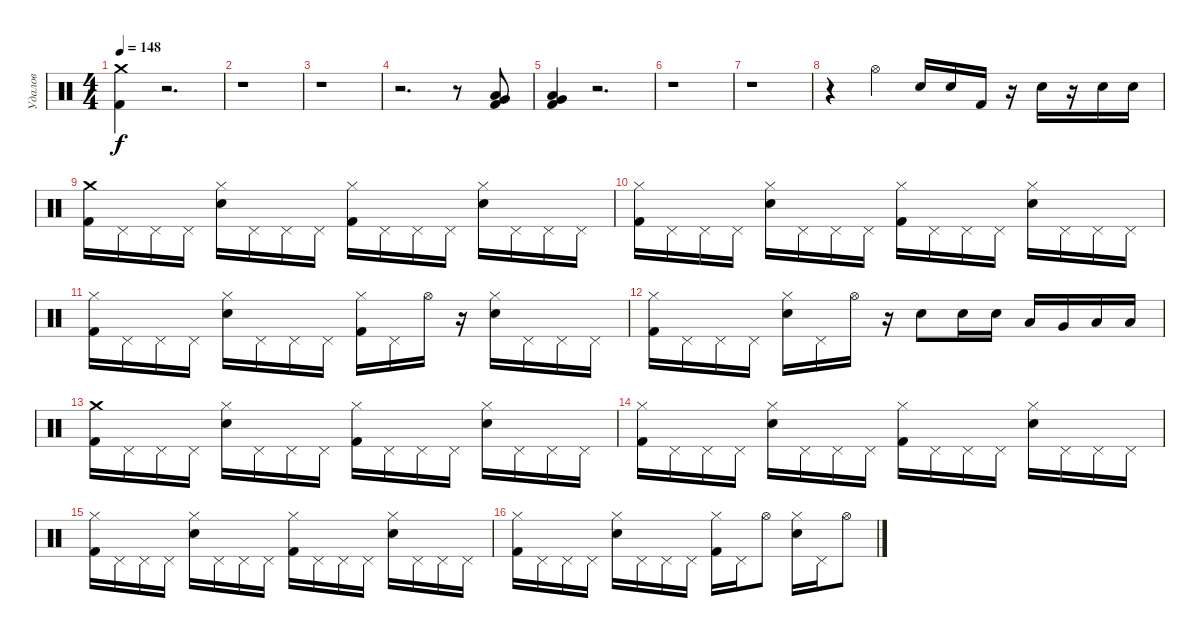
\track ("Удалов" "Удалов") {instrument percussion}
\staff {score}
\articulation defaults
\ts (4 4)
\tempo 148
\clef neutral
\ks c
("Crash medium (hit)" "Kick (hit) 2").4{dy f} r.2{d} |
r.1 |
r.1 |
r.2{d} r.8 ("Low Tom (hit)" "Very Low Tom (hit)" "Kick (hit) 2").8 |
("Kick (hit) 2" "Low Tom (hit)" "Very Low Tom (hit)").4 r.2{d} |
r.1 |
r.1 |
r.4 "Hi-Hat (open)".4 "Snare (hit) 2".16 "Snare (hit) 2".16 "Kick (hit) 2".16 r.16 "Snare (hit) 2".16 r.16 "Snare (hit) 2".16 "Snare (hit) 2".16 |
("Kick (hit) 2" "Crash medium (hit)").16 "Pedal Hi-Hat (hit)".16 "Pedal Hi-Hat (hit)".16 "Pedal Hi-Hat (hit)".16 ("Snare (hit) 2" "Hi-Hat (closed)").16 "Pedal Hi-Hat (hit)".16 "Pedal Hi-Hat (hit)".16 "Pedal Hi-Hat (hit)".16 ("Kick (hit) 2" "Hi-Hat (closed)").16 "Pedal Hi-Hat (hit)".16 "Pedal Hi-Hat (hit)".16 "Pedal Hi-Hat (hit)".16 ("Snare (hit) 2" "Hi-Hat (closed)").16 "Pedal Hi-Hat (hit)".16 "Pedal Hi-Hat (hit)".16 "Pedal Hi-Hat (hit)".16 |
("Kick (hit) 2" "Hi-Hat (closed)").16 "Pedal Hi-Hat (hit)".16 "Pedal Hi-Hat (hit)".16 "Pedal Hi-Hat (hit)".16 ("Snare (hit) 2" "Hi-Hat (closed)").16 "Pedal Hi-Hat (hit)".16 "Pedal Hi-Hat (hit)".16 "Pedal Hi-Hat (hit)".16 ("Kick (hit) 2" "Hi-Hat (closed)").16 "Pedal Hi-Hat (hit)".16 "Pedal Hi-Hat (hit)".16 "Pedal Hi-Hat (hit)".16 ("Snare (hit) 2" "Hi-Hat (closed)").16 "Pedal Hi-Hat (hit)".16 "Pedal Hi-Hat (hit)".16 "Pedal Hi-Hat (hit)".16 |
("Kick (hit) 2" "Hi-Hat (closed)").16 "Pedal Hi-Hat (hit)".16 "Pedal Hi-Hat (hit)".16 "Pedal Hi-Hat (hit)".16 ("Snare (hit) 2" "Hi-Hat (closed)").16 "Pedal Hi-Hat (hit)".16 "Pedal Hi-Hat (hit)".16 "Pedal Hi-Hat (hit)".16 ("Kick (hit) 2" "Hi-Hat (closed)").16 "Pedal Hi-Hat (hit)".16 "Hi-Hat (open)".16 r.16 ("Snare (hit) 2" "Hi-Hat (closed)").16 "Pedal Hi-Hat (hit)".16 "Pedal Hi-Hat (hit)".16 "Pedal Hi-Hat (hit)".16 |
("Kick (hit) 2" "Hi-Hat (closed)").16 "Pedal Hi-Hat (hit)".16 "Pedal Hi-Hat (hit)".16 "Pedal Hi-Hat (hit)".16 ("Snare (hit) 2" "Hi-Hat (closed)").16 "Pedal Hi-Hat (hit)".16 "Hi-Hat (open)".16 r.16 "Snare (hit) 2".8 "Snare (hit) 2".16 "Snare (hit) 2".16 "Low Tom (hit)".16 "Very Low Tom (hit)".16 "Low Floor Tom (hit)".16 "Low Floor Tom (hit)".16 |
("Kick (hit) 2" "Crash medium (hit)").16 "Pedal Hi-Hat (hit)".16 "Pedal Hi-Hat (hit)".16 "Pedal Hi-Hat (hit)".16 ("Snare (hit) 2" "Hi-Hat (closed)").16 "Pedal Hi-Hat (hit)".16 "Pedal Hi-Hat (hit)".16 "Pedal Hi-Hat (hit)".16 ("Kick (hit) 2" "Hi-Hat (closed)").16 "Pedal Hi-Hat (hit)".16 "Pedal Hi-Hat (hit)".16 "Pedal Hi-Hat (hit)".16 ("Snare (hit) 2" "Hi-Hat (closed)").16 "Pedal Hi-Hat (hit)".16 "Pedal Hi-Hat (hit)".16 "Pedal Hi-Hat (hit)".16 |
("Kick (hit) 2" "Hi-Hat (closed)").16 "Pedal Hi-Hat (hit)".16 "Pedal Hi-Hat (hit)".16 "Pedal Hi-Hat (hit)".16 ("Snare (hit) 2" "Hi-Hat (closed)").16 "Pedal Hi-Hat (hit)".16 "Pedal Hi-Hat (hit)".16 "Pedal Hi-Hat (hit)".16 ("Kick (hit) 2" "Hi-Hat (closed)").16 "Pedal Hi-Hat (hit)".16 "Pedal Hi-Hat (hit)".16 "Pedal Hi-Hat (hit)".16 ("Snare (hit) 2" "Hi-Hat (closed)").16 "Pedal Hi-Hat (hit)".16 "Pedal Hi-Hat (hit)".16 "Pedal Hi-Hat (hit)".16 |
("Kick (hit) 2" "Hi-Hat (closed)").16 "Pedal Hi-Hat (hit)".16 "Pedal Hi-Hat (hit)".16 "Pedal Hi-Hat (hit)".16 ("Snare (hit) 2" "Hi-Hat (closed)").16 "Pedal Hi-Hat (hit)".16 "Pedal Hi-Hat (hit)".16 "Pedal Hi-Hat (hit)".16 ("Kick (hit) 2" "Hi-Hat (closed)").16 "Pedal Hi-Hat (hit)".16 "Pedal Hi-Hat (hit)".16 "Pedal Hi-Hat (hit)".16 ("Snare (hit) 2" "Hi-Hat (closed)").16 "Pedal Hi-Hat (hit)".16 "Pedal Hi-Hat (hit)".16 "Pedal Hi-Hat (hit)".16 |
("Kick (hit) 2" "Hi-Hat (closed)").16 "Pedal Hi-Hat (hit)".16 "Pedal Hi-Hat (hit)".16 "Pedal Hi-Hat (hit)".16 ("Snare (hit) 2" "Hi-Hat (closed)").16 "Pedal Hi-Hat (hit)".16 "Pedal Hi-Hat (hit)".16 "Pedal Hi-Hat (hit)".16 ("Hi-Hat (closed)" "Kick (hit) 2").16 "Pedal Hi-Hat (hit)".16 "Hi-Hat (open)".8 ("Hi-Hat (closed)" "Snare (hit) 2").16 "Pedal Hi-Hat (hit)".16 "Hi-Hat (open)".8
